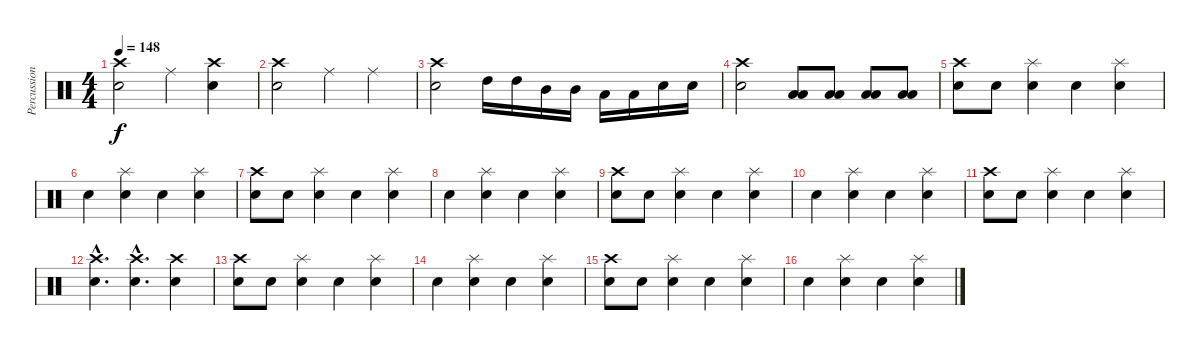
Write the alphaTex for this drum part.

\track ("Percussions" "Percussion") {instrument percussion}
\staff {score}
\articulation defaults
\ts (4 4)
\tempo 148
\clef neutral
\ks c
("Snare (hit) 2" "Crash high (hit)").2{dy f} "Ride (middle)".4 ("Crash high (hit)" "Snare (hit) 2").4 |
("Snare (hit) 2" "Crash high (hit)").2 "Ride (middle)".4 "Ride (middle)".4 |
("Crash high (hit)" "Snare (hit) 2").2 "High Tom (hit)".16 "High Tom (hit)".16 "Mid Tom (hit)".16 "Mid Tom (hit)".16 "Low Tom (hit)".16 "Low Tom (hit)".16 "Snare (hit) 2".16 "Snare (hit) 2".16 |
("Crash high (hit)" "Snare (hit) 2").2 ("Low Tom (hit)" "Low Floor Tom (hit)").8 ("Low Tom (hit)" "Low Floor Tom (hit)").8 ("Low Tom (hit)" "Low Floor Tom (hit)").8 ("Low Tom (hit)" "Low Floor Tom (hit)").8 |
("Crash high (hit)" "Snare (hit) 2").8 "Snare (hit) 2".8 ("Splash (hit)" "Electric Snare (hit)").4 "Snare (hit) 2".4 ("Splash (hit)" "Electric Snare (hit)").4 |
"Snare (hit) 2".4 ("Splash (hit)" "Electric Snare (hit)").4 "Snare (hit) 2".4 ("Splash (hit)" "Electric Snare (hit)").4 |
("Crash high (hit)" "Snare (hit) 2").8 "Snare (hit) 2".8 ("Splash (hit)" "Electric Snare (hit)").4 "Snare (hit) 2".4 ("Splash (hit)" "Electric Snare (hit)").4 |
"Snare (hit) 2".4 ("Splash (hit)" "Electric Snare (hit)").4 "Snare (hit) 2".4 ("Splash (hit)" "Electric Snare (hit)").4 |
("Crash high (hit)" "Snare (hit) 2").8 "Snare (hit) 2".8 ("Splash (hit)" "Electric Snare (hit)").4 "Snare (hit) 2".4 ("Splash (hit)" "Electric Snare (hit)").4 |
"Snare (hit) 2".4 ("Splash (hit)" "Electric Snare (hit)").4 "Snare (hit) 2".4 ("Splash (hit)" "Electric Snare (hit)").4 |
("Crash high (hit)" "Snare (hit) 2").8 "Snare (hit) 2".8 ("Splash (hit)" "Electric Snare (hit)").4 "Snare (hit) 2".4 ("Splash (hit)" "Electric Snare (hit)").4 |
("Crash high (hit)"{hac} "Snare (hit) 2"{hac}).4{d} ("Crash high (hit)"{hac} "Snare (hit) 2"{hac}).4{d} ("Crash high (hit)" "Snare (hit) 2").4 |
("Crash high (hit)" "Snare (hit) 2").8 "Snare (hit) 2".8 ("Splash (hit)" "Electric Snare (hit)").4 "Snare (hit) 2".4 ("Splash (hit)" "Electric Snare (hit)").4 |
"Snare (hit) 2".4 ("Splash (hit)" "Electric Snare (hit)").4 "Snare (hit) 2".4 ("Splash (hit)" "Electric Snare (hit)").4 |
("Crash high (hit)" "Snare (hit) 2").8 "Snare (hit) 2".8 ("Splash (hit)" "Electric Snare (hit)").4 "Snare (hit) 2".4 ("Splash (hit)" "Electric Snare (hit)").4 |
"Snare (hit) 2".4 ("Splash (hit)" "Electric Snare (hit)").4 "Snare (hit) 2".4 ("Splash (hit)" "Electric Snare (hit)").4
